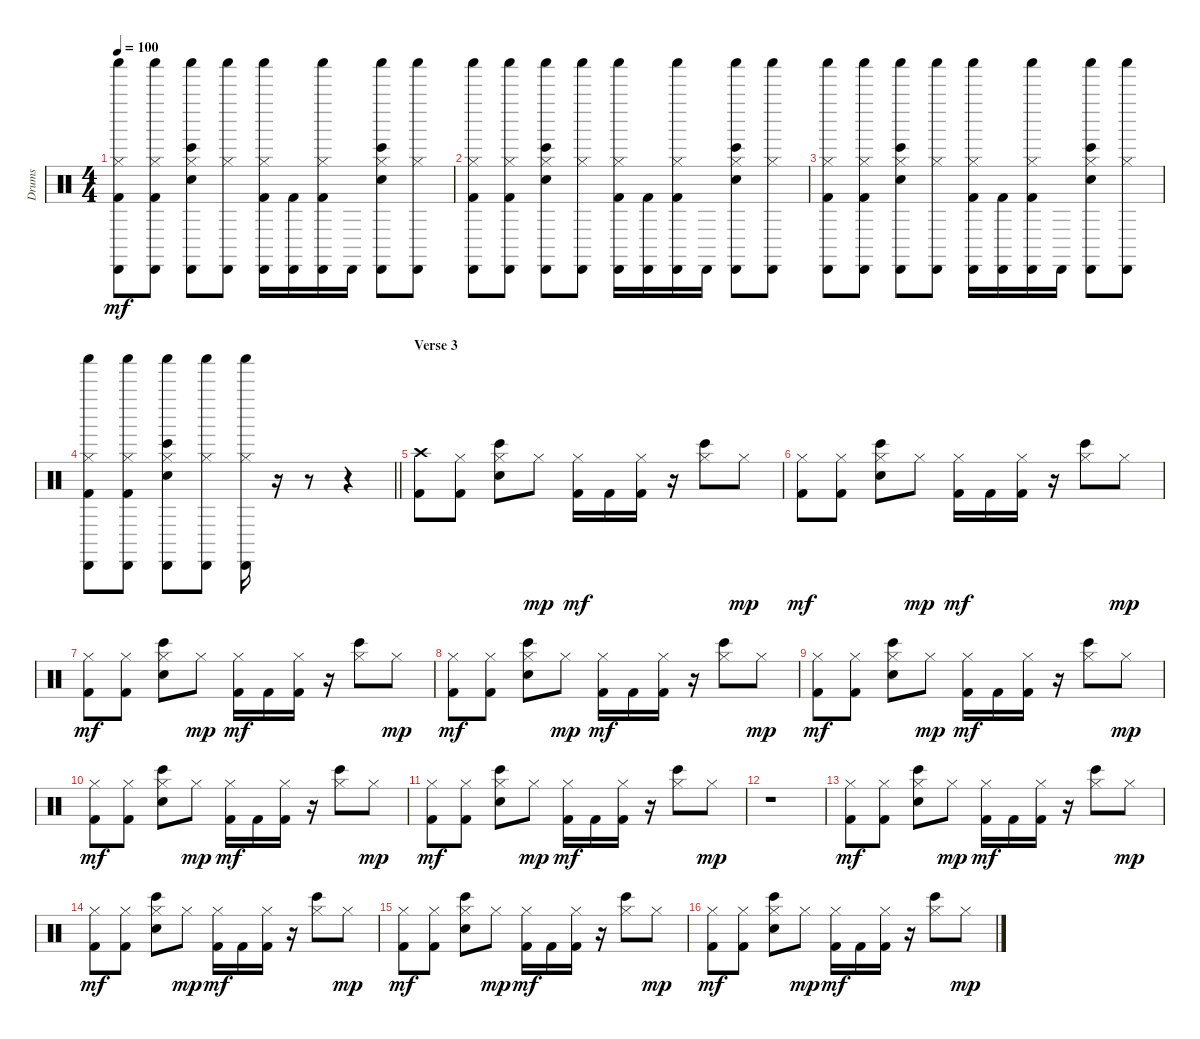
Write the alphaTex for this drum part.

\track ("Drums" "Drums") {instrument percussion}
\staff {score}
\articulation defaults
\ts (4 4)
\tempo 100
\clef neutral
\ks c
("Shaker (hit)" "Hi-Hat (closed)" "Cabasa (hit)" "Kick (hit) 2").8{dy mf} ("Shaker (hit)" "Hi-Hat (closed)" "Cabasa (hit)" "Kick (hit) 2").8 ("Shaker (hit)" "Hi-Hat (closed)" "Cabasa (hit)" "Bongo High (hit)" "Snare (hit) 2").8 ("Shaker (hit)" "Hi-Hat (closed)" "Cabasa (hit)").8 ("Shaker (hit)" "Hi-Hat (closed)" "Cabasa (hit)" "Kick (hit) 2").16 ("Cabasa (hit)" "Kick (hit) 2").16 ("Shaker (hit)" "Hi-Hat (closed)" "Cabasa (hit)" "Kick (hit) 2").16 "Cabasa (hit)".16 ("Shaker (hit)" "Hi-Hat (closed)" "Cabasa (hit)" "Bongo High (hit)" "Snare (hit) 2").8 ("Shaker (hit)" "Hi-Hat (closed)" "Cabasa (hit)").8 |
("Shaker (hit)" "Hi-Hat (closed)" "Cabasa (hit)" "Kick (hit) 2").8 ("Shaker (hit)" "Hi-Hat (closed)" "Cabasa (hit)" "Kick (hit) 2").8 ("Shaker (hit)" "Hi-Hat (closed)" "Cabasa (hit)" "Bongo High (hit)" "Snare (hit) 2").8 ("Shaker (hit)" "Hi-Hat (closed)" "Cabasa (hit)").8 ("Shaker (hit)" "Hi-Hat (closed)" "Cabasa (hit)" "Kick (hit) 2").16 ("Cabasa (hit)" "Kick (hit) 2").16 ("Shaker (hit)" "Hi-Hat (closed)" "Cabasa (hit)" "Kick (hit) 2").16 "Cabasa (hit)".16 ("Shaker (hit)" "Hi-Hat (closed)" "Cabasa (hit)" "Bongo High (hit)" "Snare (hit) 2").8 ("Shaker (hit)" "Hi-Hat (closed)" "Cabasa (hit)").8 |
("Shaker (hit)" "Hi-Hat (closed)" "Cabasa (hit)" "Kick (hit) 2").8 ("Shaker (hit)" "Hi-Hat (closed)" "Cabasa (hit)" "Kick (hit) 2").8 ("Shaker (hit)" "Hi-Hat (closed)" "Cabasa (hit)" "Bongo High (hit)" "Snare (hit) 2").8 ("Shaker (hit)" "Hi-Hat (closed)" "Cabasa (hit)").8 ("Shaker (hit)" "Hi-Hat (closed)" "Cabasa (hit)" "Kick (hit) 2").16 ("Cabasa (hit)" "Kick (hit) 2").16 ("Shaker (hit)" "Hi-Hat (closed)" "Cabasa (hit)" "Kick (hit) 2").16 "Cabasa (hit)".16 ("Shaker (hit)" "Hi-Hat (closed)" "Cabasa (hit)" "Bongo High (hit)" "Snare (hit) 2").8 ("Shaker (hit)" "Hi-Hat (closed)" "Cabasa (hit)").8 |
\barLineRight lightlight
("Shaker (hit)" "Hi-Hat (closed)" "Cabasa (hit)" "Kick (hit) 2").8 ("Shaker (hit)" "Hi-Hat (closed)" "Cabasa (hit)" "Kick (hit) 2").8 ("Shaker (hit)" "Hi-Hat (closed)" "Cabasa (hit)" "Bongo High (hit)" "Snare (hit) 2").8 ("Shaker (hit)" "Hi-Hat (closed)" "Cabasa (hit)").8 ("Shaker (hit)" "Hi-Hat (closed)" "Cabasa (hit)").16 r.16 r.8 r.4 |
\section ("" "Verse 3")
("Crash high (hit)" "Kick (hit) 2").8 ("Hi-Hat (closed)" "Kick (hit) 2").8 ("Hi-Hat (closed)" "Bongo High (hit)" "Snare (hit) 2").8 "Hi-Hat (closed)".8{dy mp} ("Hi-Hat (closed)" "Kick (hit) 2").16{dy mf} "Kick (hit) 2".16 ("Hi-Hat (closed)" "Kick (hit) 2").16 r.16 ("Hi-Hat (closed)" "Bongo High (hit)").8 "Hi-Hat (closed)".8{dy mp} |
("Hi-Hat (closed)" "Kick (hit) 2").8{dy mf} ("Hi-Hat (closed)" "Kick (hit) 2").8 ("Hi-Hat (closed)" "Bongo High (hit)" "Snare (hit) 2").8 "Hi-Hat (closed)".8{dy mp} ("Hi-Hat (closed)" "Kick (hit) 2").16{dy mf} "Kick (hit) 2".16 ("Hi-Hat (closed)" "Kick (hit) 2").16 r.16 ("Hi-Hat (closed)" "Bongo High (hit)").8 "Hi-Hat (closed)".8{dy mp} |
("Hi-Hat (closed)" "Kick (hit) 2").8{dy mf} ("Hi-Hat (closed)" "Kick (hit) 2").8 ("Hi-Hat (closed)" "Bongo High (hit)" "Snare (hit) 2").8 "Hi-Hat (closed)".8{dy mp} ("Hi-Hat (closed)" "Kick (hit) 2").16{dy mf} "Kick (hit) 2".16 ("Hi-Hat (closed)" "Kick (hit) 2").16 r.16 ("Hi-Hat (closed)" "Bongo High (hit)").8 "Hi-Hat (closed)".8{dy mp} |
("Hi-Hat (closed)" "Kick (hit) 2").8{dy mf} ("Hi-Hat (closed)" "Kick (hit) 2").8 ("Hi-Hat (closed)" "Bongo High (hit)" "Snare (hit) 2").8 "Hi-Hat (closed)".8{dy mp} ("Hi-Hat (closed)" "Kick (hit) 2").16{dy mf} "Kick (hit) 2".16 ("Hi-Hat (closed)" "Kick (hit) 2").16 r.16 ("Hi-Hat (closed)" "Bongo High (hit)").8 "Hi-Hat (closed)".8{dy mp} |
("Hi-Hat (closed)" "Kick (hit) 2").8{dy mf} ("Hi-Hat (closed)" "Kick (hit) 2").8 ("Hi-Hat (closed)" "Bongo High (hit)" "Snare (hit) 2").8 "Hi-Hat (closed)".8{dy mp} ("Hi-Hat (closed)" "Kick (hit) 2").16{dy mf} "Kick (hit) 2".16 ("Hi-Hat (closed)" "Kick (hit) 2").16 r.16 ("Hi-Hat (closed)" "Bongo High (hit)").8 "Hi-Hat (closed)".8{dy mp} |
("Hi-Hat (closed)" "Kick (hit) 2").8{dy mf} ("Hi-Hat (closed)" "Kick (hit) 2").8 ("Hi-Hat (closed)" "Bongo High (hit)" "Snare (hit) 2").8 "Hi-Hat (closed)".8{dy mp} ("Hi-Hat (closed)" "Kick (hit) 2").16{dy mf} "Kick (hit) 2".16 ("Hi-Hat (closed)" "Kick (hit) 2").16 r.16 ("Hi-Hat (closed)" "Bongo High (hit)").8 "Hi-Hat (closed)".8{dy mp} |
("Hi-Hat (closed)" "Kick (hit) 2").8{dy mf} ("Hi-Hat (closed)" "Kick (hit) 2").8 ("Hi-Hat (closed)" "Bongo High (hit)" "Snare (hit) 2").8 "Hi-Hat (closed)".8{dy mp} ("Hi-Hat (closed)" "Kick (hit) 2").16{dy mf} "Kick (hit) 2".16 ("Hi-Hat (closed)" "Kick (hit) 2").16 r.16 ("Hi-Hat (closed)" "Bongo High (hit)").8 "Hi-Hat (closed)".8{dy mp} |
r.1 |
("Hi-Hat (closed)" "Kick (hit) 2").8{dy mf} ("Hi-Hat (closed)" "Kick (hit) 2").8 ("Hi-Hat (closed)" "Bongo High (hit)" "Snare (hit) 2").8 "Hi-Hat (closed)".8{dy mp} ("Hi-Hat (closed)" "Kick (hit) 2").16{dy mf} "Kick (hit) 2".16 ("Hi-Hat (closed)" "Kick (hit) 2").16 r.16 ("Hi-Hat (closed)" "Bongo High (hit)").8 "Hi-Hat (closed)".8{dy mp} |
("Hi-Hat (closed)" "Kick (hit) 2").8{dy mf} ("Hi-Hat (closed)" "Kick (hit) 2").8 ("Hi-Hat (closed)" "Bongo High (hit)" "Snare (hit) 2").8 "Hi-Hat (closed)".8{dy mp} ("Hi-Hat (closed)" "Kick (hit) 2").16{dy mf} "Kick (hit) 2".16 ("Hi-Hat (closed)" "Kick (hit) 2").16 r.16 ("Hi-Hat (closed)" "Bongo High (hit)").8 "Hi-Hat (closed)".8{dy mp} |
("Hi-Hat (closed)" "Kick (hit) 2").8{dy mf} ("Hi-Hat (closed)" "Kick (hit) 2").8 ("Hi-Hat (closed)" "Bongo High (hit)" "Snare (hit) 2").8 "Hi-Hat (closed)".8{dy mp} ("Hi-Hat (closed)" "Kick (hit) 2").16{dy mf} "Kick (hit) 2".16 ("Hi-Hat (closed)" "Kick (hit) 2").16 r.16 ("Hi-Hat (closed)" "Bongo High (hit)").8 "Hi-Hat (closed)".8{dy mp} |
("Hi-Hat (closed)" "Kick (hit) 2").8{dy mf} ("Hi-Hat (closed)" "Kick (hit) 2").8 ("Hi-Hat (closed)" "Bongo High (hit)" "Snare (hit) 2").8 "Hi-Hat (closed)".8{dy mp} ("Hi-Hat (closed)" "Kick (hit) 2").16{dy mf} "Kick (hit) 2".16 ("Hi-Hat (closed)" "Kick (hit) 2").16 r.16 ("Hi-Hat (closed)" "Bongo High (hit)").8 "Hi-Hat (closed)".8{dy mp}
